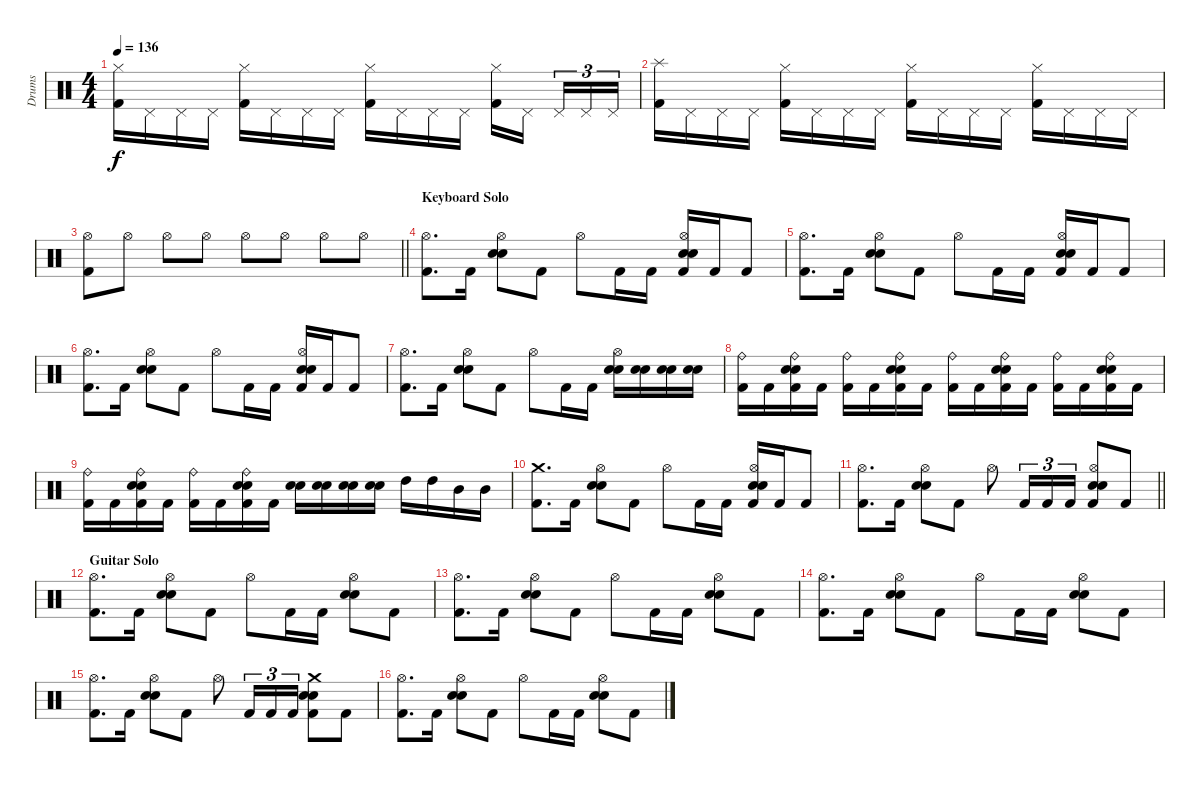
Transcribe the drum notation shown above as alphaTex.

\track ("Drums" "Drums") {instrument percussion}
\staff {score}
\articulation defaults
\ts (4 4)
\tempo 136
\clef neutral
\ks c
("Hi-Hat (closed)" "Kick (hit) 2").16{dy f} "Pedal Hi-Hat (hit)".16 "Pedal Hi-Hat (hit)".16 "Pedal Hi-Hat (hit)".16 ("Hi-Hat (closed)" "Kick (hit) 2").16 "Pedal Hi-Hat (hit)".16 "Pedal Hi-Hat (hit)".16 "Pedal Hi-Hat (hit)".16 ("Hi-Hat (closed)" "Kick (hit) 2").16 "Pedal Hi-Hat (hit)".16 "Pedal Hi-Hat (hit)".16 "Pedal Hi-Hat (hit)".16 ("Hi-Hat (closed)" "Kick (hit) 2").16 "Pedal Hi-Hat (hit)".16{beam splitsecondary} "Pedal Hi-Hat (hit)".16{tu (3 2)} "Pedal Hi-Hat (hit)".16{tu (3 2)} "Pedal Hi-Hat (hit)".16{tu (3 2)} |
("Splash (hit)" "Kick (hit) 2").16 "Pedal Hi-Hat (hit)".16 "Pedal Hi-Hat (hit)".16 "Pedal Hi-Hat (hit)".16 ("Hi-Hat (closed)" "Kick (hit) 2").16 "Pedal Hi-Hat (hit)".16 "Pedal Hi-Hat (hit)".16 "Pedal Hi-Hat (hit)".16 ("Hi-Hat (closed)" "Kick (hit) 2").16 "Pedal Hi-Hat (hit)".16 "Pedal Hi-Hat (hit)".16 "Pedal Hi-Hat (hit)".16 ("Hi-Hat (closed)" "Kick (hit) 2").16 "Pedal Hi-Hat (hit)".16 "Pedal Hi-Hat (hit)".16 "Pedal Hi-Hat (hit)".16 |
\barLineRight lightlight
("Hi-Hat (open)" "Kick (hit) 2").8 "Hi-Hat (open)".8 "Hi-Hat (open)".8 "Hi-Hat (open)".8 "Hi-Hat (open)".8 "Hi-Hat (open)".8 "Hi-Hat (open)".8 "Hi-Hat (open)".8 |
\section ("" "Keyboard Solo")
("Hi-Hat (open)" "Kick (hit) 2").8{d} "Kick (hit) 2".16 ("Hi-Hat (open)" "Electric Snare (hit)" "Snare (hit) 2").8 "Kick (hit) 2".8 "Hi-Hat (open)".8 "Kick (hit) 2".16 "Kick (hit) 2".16 ("Hi-Hat (open)" "Electric Snare (hit)" "Snare (hit) 2" "Kick (hit) 2").16 "Kick (hit) 2".16 "Kick (hit) 2".8 |
("Hi-Hat (open)" "Kick (hit) 2").8{d} "Kick (hit) 2".16 ("Hi-Hat (open)" "Electric Snare (hit)" "Snare (hit) 2").8 "Kick (hit) 2".8 "Hi-Hat (open)".8 "Kick (hit) 2".16 "Kick (hit) 2".16 ("Hi-Hat (open)" "Electric Snare (hit)" "Snare (hit) 2" "Kick (hit) 2").16 "Kick (hit) 2".16 "Kick (hit) 2".8 |
("Hi-Hat (open)" "Kick (hit) 2").8{d} "Kick (hit) 2".16 ("Hi-Hat (open)" "Electric Snare (hit)" "Snare (hit) 2").8 "Kick (hit) 2".8 "Hi-Hat (open)".8 "Kick (hit) 2".16 "Kick (hit) 2".16 ("Hi-Hat (open)" "Electric Snare (hit)" "Snare (hit) 2" "Kick (hit) 2").16 "Kick (hit) 2".16 "Kick (hit) 2".8 |
("Hi-Hat (open)" "Kick (hit) 2").8{d} "Kick (hit) 2".16 ("Hi-Hat (open)" "Electric Snare (hit)" "Snare (hit) 2").8 "Kick (hit) 2".8 "Hi-Hat (open)".8 "Kick (hit) 2".16 "Kick (hit) 2".16 ("Hi-Hat (open)" "Electric Snare (hit)" "Snare (hit) 2").16 ("Electric Snare (hit)" "Snare (hit) 2").16 ("Electric Snare (hit)" "Snare (hit) 2").16 ("Electric Snare (hit)" "Snare (hit) 2").16 |
("Ride (bell)" "Kick (hit) 2").16 "Kick (hit) 2".16 ("Ride (bell)" "Electric Snare (hit)" "Snare (hit) 2" "Kick (hit) 2").16 "Kick (hit) 2".16 ("Ride (bell)" "Kick (hit) 2").16 "Kick (hit) 2".16 ("Ride (bell)" "Electric Snare (hit)" "Snare (hit) 2" "Kick (hit) 2").16 "Kick (hit) 2".16 ("Ride (bell)" "Kick (hit) 2").16 "Kick (hit) 2".16 ("Ride (bell)" "Electric Snare (hit)" "Snare (hit) 2" "Kick (hit) 2").16 "Kick (hit) 2".16 ("Ride (bell)" "Kick (hit) 2").16 "Kick (hit) 2".16 ("Ride (bell)" "Electric Snare (hit)" "Snare (hit) 2" "Kick (hit) 2").16 "Kick (hit) 2".16 |
("Ride (bell)" "Kick (hit) 2").16 "Kick (hit) 2".16 ("Ride (bell)" "Electric Snare (hit)" "Snare (hit) 2" "Kick (hit) 2").16 "Kick (hit) 2".16 ("Ride (bell)" "Kick (hit) 2").16 "Kick (hit) 2".16 ("Ride (bell)" "Electric Snare (hit)" "Snare (hit) 2" "Kick (hit) 2").16 "Kick (hit) 2".16 ("Electric Snare (hit)" "Snare (hit) 2").16 ("Electric Snare (hit)" "Snare (hit) 2").16 ("Electric Snare (hit)" "Snare (hit) 2").16 ("Electric Snare (hit)" "Snare (hit) 2").16 "High Tom (hit)".16 "High Tom (hit)".16 "Mid Tom (hit)".16 "Mid Tom (hit)".16 |
("Crash medium (hit)" "Kick (hit) 2").8{d} "Kick (hit) 2".16 ("Hi-Hat (open)" "Electric Snare (hit)" "Snare (hit) 2").8 "Kick (hit) 2".8 "Hi-Hat (open)".8 "Kick (hit) 2".16 "Kick (hit) 2".16 ("Hi-Hat (open)" "Electric Snare (hit)" "Snare (hit) 2" "Kick (hit) 2").16 "Kick (hit) 2".16 "Kick (hit) 2".8 |
\barLineRight lightlight
("Hi-Hat (open)" "Kick (hit) 2").8{d} "Kick (hit) 2".16 ("Hi-Hat (open)" "Electric Snare (hit)" "Snare (hit) 2").8 "Kick (hit) 2".8 "Hi-Hat (open)".8 "Kick (hit) 2".16{tu (3 2)} "Kick (hit) 2".16{tu (3 2)} "Kick (hit) 2".16{tu (3 2)} ("Hi-Hat (open)" "Electric Snare (hit)" "Snare (hit) 2" "Kick (hit) 2").8 "Kick (hit) 2".8 |
\section ("" "Guitar Solo")
("Hi-Hat (open)" "Kick (hit) 2").8{d} "Kick (hit) 2".16 ("Hi-Hat (open)" "Electric Snare (hit)" "Snare (hit) 2").8 "Kick (hit) 2".8 "Hi-Hat (open)".8 "Kick (hit) 2".16 "Kick (hit) 2".16 ("Hi-Hat (open)" "Electric Snare (hit)" "Snare (hit) 2").8 "Kick (hit) 2".8 |
("Hi-Hat (open)" "Kick (hit) 2").8{d} "Kick (hit) 2".16 ("Hi-Hat (open)" "Electric Snare (hit)" "Snare (hit) 2").8 "Kick (hit) 2".8 "Hi-Hat (open)".8 "Kick (hit) 2".16 "Kick (hit) 2".16 ("Hi-Hat (open)" "Electric Snare (hit)" "Snare (hit) 2").8 "Kick (hit) 2".8 |
("Hi-Hat (open)" "Kick (hit) 2").8{d} "Kick (hit) 2".16 ("Hi-Hat (open)" "Electric Snare (hit)" "Snare (hit) 2").8 "Kick (hit) 2".8 "Hi-Hat (open)".8 "Kick (hit) 2".16 "Kick (hit) 2".16 ("Hi-Hat (open)" "Electric Snare (hit)" "Snare (hit) 2").8 "Kick (hit) 2".8 |
("Hi-Hat (open)" "Kick (hit) 2").8{d} "Kick (hit) 2".16 ("Hi-Hat (open)" "Electric Snare (hit)" "Snare (hit) 2").8 "Kick (hit) 2".8 "Hi-Hat (open)".8 "Kick (hit) 2".16{tu (3 2)} "Kick (hit) 2".16{tu (3 2)} "Kick (hit) 2".16{tu (3 2)} ("Crash medium (hit)" "Electric Snare (hit)" "Snare (hit) 2" "Kick (hit) 2").8 "Kick (hit) 2".8 |
("Hi-Hat (open)" "Kick (hit) 2").8{d} "Kick (hit) 2".16 ("Hi-Hat (open)" "Electric Snare (hit)" "Snare (hit) 2").8 "Kick (hit) 2".8 "Hi-Hat (open)".8 "Kick (hit) 2".16 "Kick (hit) 2".16 ("Hi-Hat (open)" "Electric Snare (hit)" "Snare (hit) 2").8 "Kick (hit) 2".8
